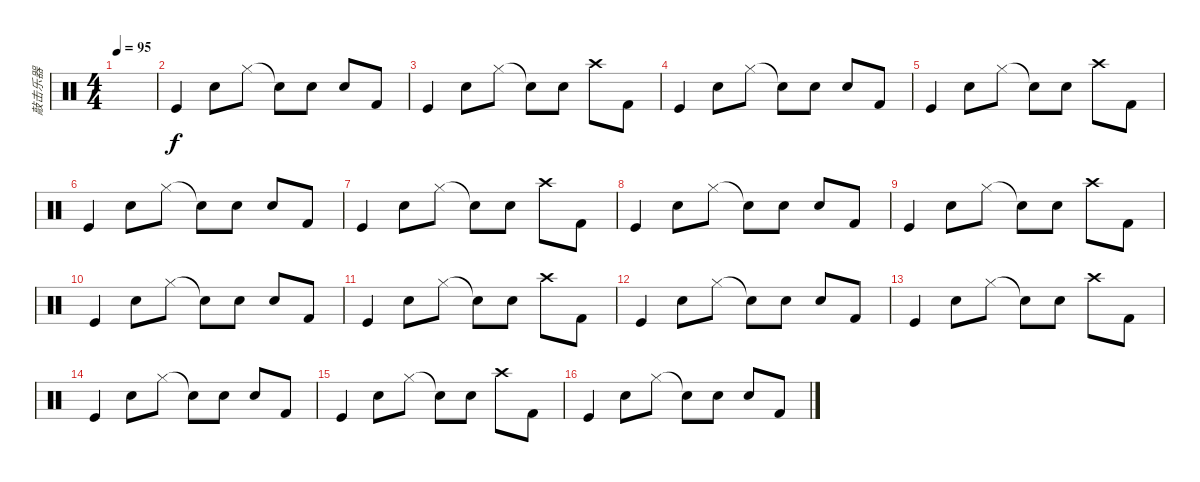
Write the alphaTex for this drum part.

\track ("敲击乐器" "敲击乐器") {instrument percussion}
\staff {score}
\articulation defaults
\ts (4 4)
\tempo 95
\clef neutral
\ks c
|
"Kick (hit)".4 "Hand Clap (hit)".8 "Hi-Hat (closed)".8 "Snare (hit)"{t}.8 "Hand Clap (hit)".8 "Snare (hit) 2".8 "Kick (hit) 2".8 |
"Kick (hit)".4 "Hand Clap (hit)".8 "Hi-Hat (closed)".8 "Snare (hit)"{t}.8 "Hand Clap (hit)".8 "Crash high (hit)".8 "Kick (hit) 2".8 |
"Kick (hit)".4 "Hand Clap (hit)".8 "Hi-Hat (closed)".8 "Snare (hit)"{t}.8 "Hand Clap (hit)".8 "Snare (hit) 2".8 "Kick (hit) 2".8 |
"Kick (hit)".4 "Hand Clap (hit)".8 "Hi-Hat (closed)".8 "Snare (hit)"{t}.8 "Hand Clap (hit)".8 "Crash high (hit)".8 "Kick (hit) 2".8 |
"Kick (hit)".4 "Hand Clap (hit)".8 "Hi-Hat (closed)".8 "Snare (hit)"{t}.8 "Hand Clap (hit)".8 "Snare (hit) 2".8 "Kick (hit) 2".8 |
"Kick (hit)".4 "Hand Clap (hit)".8 "Hi-Hat (closed)".8 "Snare (hit)"{t}.8 "Hand Clap (hit)".8 "Crash high (hit)".8 "Kick (hit) 2".8 |
"Kick (hit)".4 "Hand Clap (hit)".8 "Hi-Hat (closed)".8 "Snare (hit)"{t}.8 "Hand Clap (hit)".8 "Snare (hit) 2".8 "Kick (hit) 2".8 |
"Kick (hit)".4 "Hand Clap (hit)".8 "Hi-Hat (closed)".8 "Snare (hit)"{t}.8 "Hand Clap (hit)".8 "Crash high (hit)".8 "Kick (hit) 2".8 |
"Kick (hit)".4 "Hand Clap (hit)".8 "Hi-Hat (closed)".8 "Snare (hit)"{t}.8 "Hand Clap (hit)".8 "Snare (hit) 2".8 "Kick (hit) 2".8 |
"Kick (hit)".4 "Hand Clap (hit)".8 "Hi-Hat (closed)".8 "Snare (hit)"{t}.8 "Hand Clap (hit)".8 "Crash high (hit)".8 "Kick (hit) 2".8 |
"Kick (hit)".4 "Hand Clap (hit)".8 "Hi-Hat (closed)".8 "Snare (hit)"{t}.8 "Hand Clap (hit)".8 "Snare (hit) 2".8 "Kick (hit) 2".8 |
"Kick (hit)".4 "Hand Clap (hit)".8 "Hi-Hat (closed)".8 "Snare (hit)"{t}.8 "Hand Clap (hit)".8 "Crash high (hit)".8 "Kick (hit) 2".8 |
"Kick (hit)".4 "Hand Clap (hit)".8 "Hi-Hat (closed)".8 "Snare (hit)"{t}.8 "Hand Clap (hit)".8 "Snare (hit) 2".8 "Kick (hit) 2".8 |
"Kick (hit)".4 "Hand Clap (hit)".8 "Hi-Hat (closed)".8 "Snare (hit)"{t}.8 "Hand Clap (hit)".8 "Crash high (hit)".8 "Kick (hit) 2".8 |
"Kick (hit)".4 "Hand Clap (hit)".8 "Hi-Hat (closed)".8 "Snare (hit)"{t}.8 "Hand Clap (hit)".8 "Snare (hit) 2".8 "Kick (hit) 2".8
